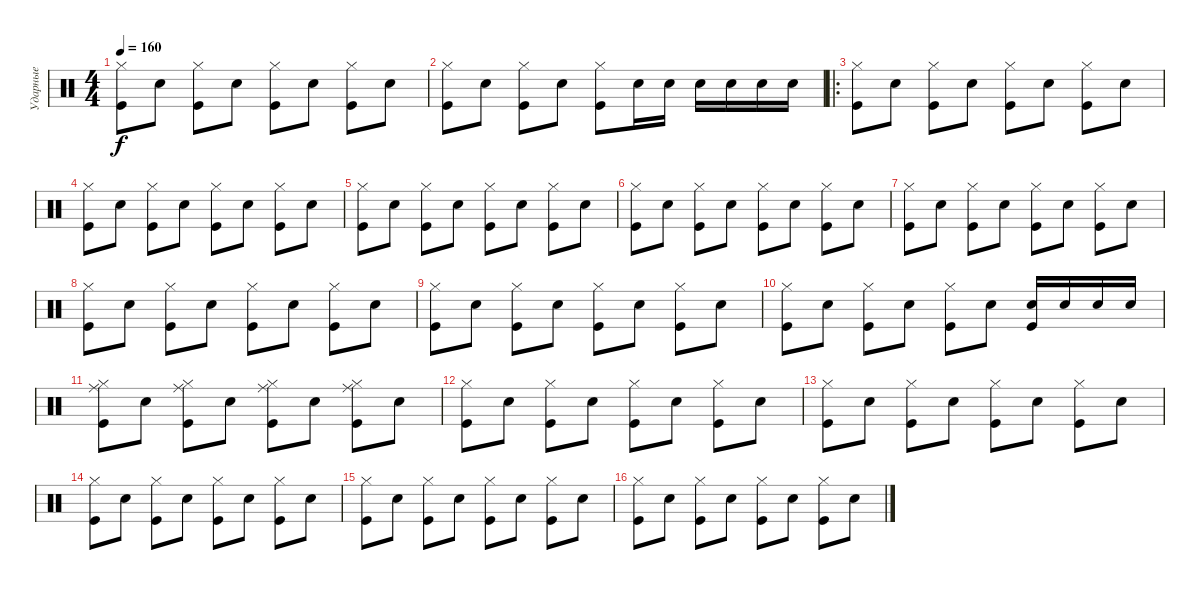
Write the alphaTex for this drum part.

\track ("Ударные" "Ударные") {instrument percussion}
\staff {score}
\articulation defaults
\ts (4 4)
\tempo 160
\clef neutral
\ks c
("Hi-Hat (closed)" "Kick (hit)").8{dy f} "Snare (hit) 2".8 ("Hi-Hat (closed)" "Kick (hit)").8 "Snare (hit) 2".8 ("Hi-Hat (closed)" "Kick (hit)").8 "Snare (hit) 2".8 ("Hi-Hat (closed)" "Kick (hit)").8 "Snare (hit) 2".8 |
("Hi-Hat (closed)" "Kick (hit)").8 "Snare (hit) 2".8 ("Hi-Hat (closed)" "Kick (hit)").8 "Snare (hit) 2".8 ("Hi-Hat (closed)" "Kick (hit)").8 "Electric Snare (hit)".16 "Electric Snare (hit)".16 "Electric Snare (hit)".16 "Electric Snare (hit)".16 "Electric Snare (hit)".16 "Electric Snare (hit)".16 |
\ro
("Hi-Hat (closed)" "Kick (hit)").8 "Snare (hit) 2".8 ("Hi-Hat (closed)" "Kick (hit)").8 "Snare (hit) 2".8 ("Hi-Hat (closed)" "Kick (hit)").8 "Snare (hit) 2".8 ("Hi-Hat (closed)" "Kick (hit)").8 "Snare (hit) 2".8 |
("Hi-Hat (closed)" "Kick (hit)").8 "Snare (hit) 2".8 ("Hi-Hat (closed)" "Kick (hit)").8 "Snare (hit) 2".8 ("Hi-Hat (closed)" "Kick (hit)").8 "Snare (hit) 2".8 ("Hi-Hat (closed)" "Kick (hit)").8 "Snare (hit) 2".8 |
("Hi-Hat (closed)" "Kick (hit)").8 "Snare (hit) 2".8 ("Hi-Hat (closed)" "Kick (hit)").8 "Snare (hit) 2".8 ("Hi-Hat (closed)" "Kick (hit)").8 "Snare (hit) 2".8 ("Hi-Hat (closed)" "Kick (hit)").8 "Snare (hit) 2".8 |
("Hi-Hat (closed)" "Kick (hit)").8 "Snare (hit) 2".8 ("Hi-Hat (closed)" "Kick (hit)").8 "Snare (hit) 2".8 ("Hi-Hat (closed)" "Kick (hit)").8 "Snare (hit) 2".8 ("Hi-Hat (closed)" "Kick (hit)").8 "Snare (hit) 2".8 |
("Hi-Hat (closed)" "Kick (hit)").8 "Snare (hit) 2".8 ("Hi-Hat (closed)" "Kick (hit)").8 "Snare (hit) 2".8 ("Hi-Hat (closed)" "Kick (hit)").8 "Snare (hit) 2".8 ("Hi-Hat (closed)" "Kick (hit)").8 "Snare (hit) 2".8 |
("Hi-Hat (closed)" "Kick (hit)").8 "Snare (hit) 2".8 ("Hi-Hat (closed)" "Kick (hit)").8 "Snare (hit) 2".8 ("Hi-Hat (closed)" "Kick (hit)").8 "Snare (hit) 2".8 ("Hi-Hat (closed)" "Kick (hit)").8 "Snare (hit) 2".8 |
("Hi-Hat (closed)" "Kick (hit)").8 "Snare (hit) 2".8 ("Hi-Hat (closed)" "Kick (hit)").8 "Snare (hit) 2".8 ("Hi-Hat (closed)" "Kick (hit)").8 "Snare (hit) 2".8 ("Hi-Hat (closed)" "Kick (hit)").8 "Snare (hit) 2".8 |
("Hi-Hat (closed)" "Kick (hit)").8 "Snare (hit) 2".8 ("Hi-Hat (closed)" "Kick (hit)").8 "Snare (hit) 2".8 ("Hi-Hat (closed)" "Kick (hit)").8 "Snare (hit) 2".8 ("Electric Snare (hit)" "Kick (hit)").16 "Electric Snare (hit)".16 "Electric Snare (hit)".16 "Electric Snare (hit)".16 |
("Hi-Hat (closed)" "Kick (hit)" "Ride (middle)").8 "Snare (hit) 2".8 ("Hi-Hat (closed)" "Kick (hit)" "Ride (middle)").8 "Snare (hit) 2".8 ("Hi-Hat (closed)" "Kick (hit)" "Ride (middle)").8 "Snare (hit) 2".8 ("Hi-Hat (closed)" "Kick (hit)" "Ride (middle)").8 "Snare (hit) 2".8 |
("Hi-Hat (closed)" "Kick (hit)").8 "Snare (hit) 2".8 ("Hi-Hat (closed)" "Kick (hit)").8 "Snare (hit) 2".8 ("Hi-Hat (closed)" "Kick (hit)").8 "Snare (hit) 2".8 ("Hi-Hat (closed)" "Kick (hit)").8 "Snare (hit) 2".8 |
("Hi-Hat (closed)" "Kick (hit)").8 "Snare (hit) 2".8 ("Hi-Hat (closed)" "Kick (hit)").8 "Snare (hit) 2".8 ("Hi-Hat (closed)" "Kick (hit)").8 "Snare (hit) 2".8 ("Hi-Hat (closed)" "Kick (hit)").8 "Snare (hit) 2".8 |
("Hi-Hat (closed)" "Kick (hit)").8 "Snare (hit) 2".8 ("Hi-Hat (closed)" "Kick (hit)").8 "Snare (hit) 2".8 ("Hi-Hat (closed)" "Kick (hit)").8 "Snare (hit) 2".8 ("Hi-Hat (closed)" "Kick (hit)").8 "Snare (hit) 2".8 |
("Hi-Hat (closed)" "Kick (hit)").8 "Snare (hit) 2".8 ("Hi-Hat (closed)" "Kick (hit)").8 "Snare (hit) 2".8 ("Hi-Hat (closed)" "Kick (hit)").8 "Snare (hit) 2".8 ("Hi-Hat (closed)" "Kick (hit)").8 "Snare (hit) 2".8 |
("Hi-Hat (closed)" "Kick (hit)").8 "Snare (hit) 2".8 ("Hi-Hat (closed)" "Kick (hit)").8 "Snare (hit) 2".8 ("Hi-Hat (closed)" "Kick (hit)").8 "Snare (hit) 2".8 ("Hi-Hat (closed)" "Kick (hit)").8 "Snare (hit) 2".8
